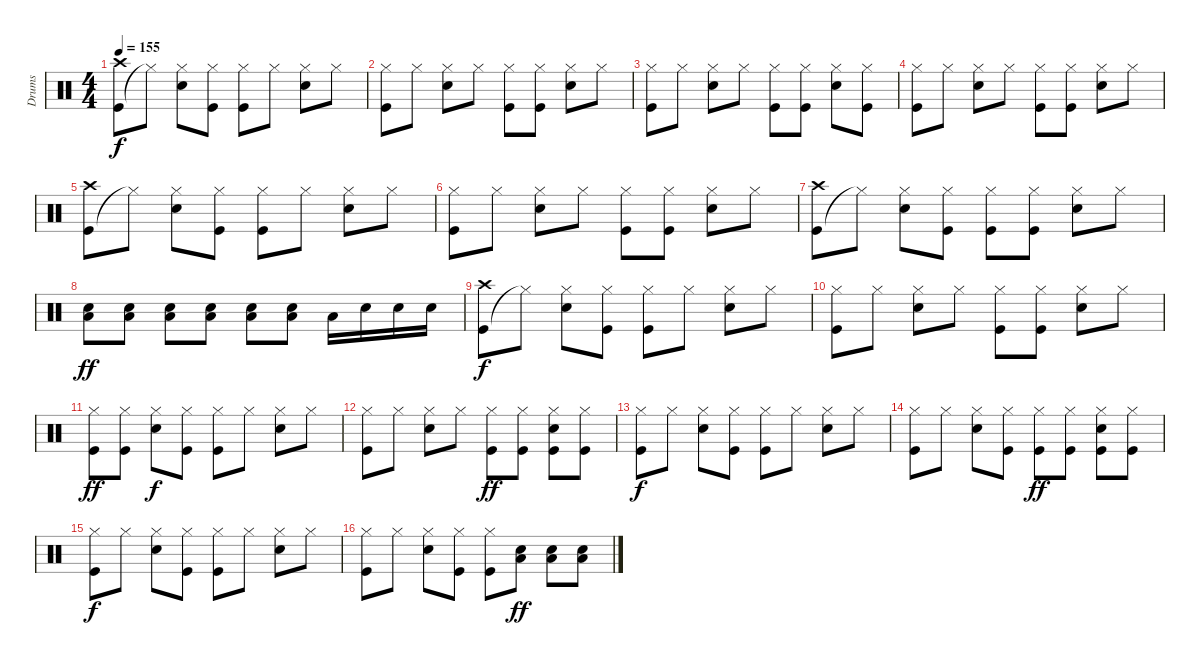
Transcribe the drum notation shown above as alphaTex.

\track ("Drums" "Drums") {instrument percussion}
\staff {score}
\articulation defaults
\ts (4 4)
\tempo 155
\clef neutral
\ks c
("Kick (hit)" "Crash high (hit)").8{dy f} "Hi-Hat (closed)"{t}.8 ("Snare (hit) 2" "Hi-Hat (closed)").8 ("Kick (hit)" "Hi-Hat (closed)").8 ("Kick (hit)" "Hi-Hat (closed)").8 "Hi-Hat (closed)".8 ("Snare (hit) 2" "Hi-Hat (closed)").8 "Hi-Hat (closed)".8 |
("Kick (hit)" "Hi-Hat (closed)").8 "Hi-Hat (closed)".8 ("Snare (hit) 2" "Hi-Hat (closed)").8 "Hi-Hat (closed)".8 ("Kick (hit)" "Hi-Hat (closed)").8 ("Kick (hit)" "Hi-Hat (closed)").8 ("Snare (hit) 2" "Hi-Hat (closed)").8 "Hi-Hat (closed)".8 |
("Kick (hit)" "Hi-Hat (closed)").8 "Hi-Hat (closed)".8 ("Snare (hit) 2" "Hi-Hat (closed)").8 "Hi-Hat (closed)".8 ("Kick (hit)" "Hi-Hat (closed)").8 ("Kick (hit)" "Hi-Hat (closed)").8 ("Snare (hit) 2" "Hi-Hat (closed)").8 ("Kick (hit)" "Hi-Hat (closed)").8 |
("Kick (hit)" "Hi-Hat (closed)").8 "Hi-Hat (closed)".8 ("Snare (hit) 2" "Hi-Hat (closed)").8 "Hi-Hat (closed)".8 ("Kick (hit)" "Hi-Hat (closed)").8 ("Kick (hit)" "Hi-Hat (closed)").8 ("Snare (hit) 2" "Hi-Hat (closed)").8 "Hi-Hat (closed)".8 |
("Kick (hit)" "Crash high (hit)").8 "Hi-Hat (closed)"{t}.8 ("Snare (hit) 2" "Hi-Hat (closed)").8 ("Kick (hit)" "Hi-Hat (closed)").8 ("Kick (hit)" "Hi-Hat (closed)").8 "Hi-Hat (closed)".8 ("Snare (hit) 2" "Hi-Hat (closed)").8 "Hi-Hat (closed)".8 |
("Kick (hit)" "Hi-Hat (closed)").8 "Hi-Hat (closed)".8 ("Snare (hit) 2" "Hi-Hat (closed)").8 "Hi-Hat (closed)".8 ("Kick (hit)" "Hi-Hat (closed)").8 ("Kick (hit)" "Hi-Hat (closed)").8 ("Snare (hit) 2" "Hi-Hat (closed)").8 "Hi-Hat (closed)".8 |
("Kick (hit)" "Crash high (hit)").8 "Hi-Hat (closed)"{t}.8 ("Snare (hit) 2" "Hi-Hat (closed)").8 ("Kick (hit)" "Hi-Hat (closed)").8 ("Kick (hit)" "Hi-Hat (closed)").8 ("Kick (hit)" "Hi-Hat (closed)").8 ("Snare (hit) 2" "Hi-Hat (closed)").8 "Hi-Hat (closed)".8 |
("Snare (hit) 2" "Low Floor Tom (hit)").8{dy ff} ("Snare (hit) 2" "Low Floor Tom (hit)").8 ("Snare (hit) 2" "Low Floor Tom (hit)").8 ("Snare (hit) 2" "Low Floor Tom (hit)").8 ("Snare (hit) 2" "Low Floor Tom (hit)").8 ("Snare (hit) 2" "Low Floor Tom (hit)").8 "Low Floor Tom (hit)".16 "Snare (hit) 2".16 "Snare (hit) 2".16 "Snare (hit) 2".16 |
("Kick (hit)" "Crash high (hit)").8{dy f} "Hi-Hat (closed)"{t}.8 ("Snare (hit) 2" "Hi-Hat (closed)").8 ("Kick (hit)" "Hi-Hat (closed)").8 ("Kick (hit)" "Hi-Hat (closed)").8 "Hi-Hat (closed)".8 ("Snare (hit) 2" "Hi-Hat (closed)").8 "Hi-Hat (closed)".8 |
("Kick (hit)" "Hi-Hat (closed)").8 "Hi-Hat (closed)".8 ("Snare (hit) 2" "Hi-Hat (closed)").8 "Hi-Hat (closed)".8 ("Kick (hit)" "Hi-Hat (closed)").8 ("Kick (hit)" "Hi-Hat (closed)").8 ("Snare (hit) 2" "Hi-Hat (closed)").8 "Hi-Hat (closed)".8 |
("Kick (hit)" "Hi-Hat (closed)").8{dy ff} ("Kick (hit)" "Hi-Hat (closed)").8 ("Snare (hit) 2" "Hi-Hat (closed)").8{dy f} ("Kick (hit)" "Hi-Hat (closed)").8 ("Kick (hit)" "Hi-Hat (closed)").8 "Hi-Hat (closed)".8 ("Snare (hit) 2" "Hi-Hat (closed)").8 "Hi-Hat (closed)".8 |
("Kick (hit)" "Hi-Hat (closed)").8 "Hi-Hat (closed)".8 ("Snare (hit) 2" "Hi-Hat (closed)").8 "Hi-Hat (closed)".8 ("Kick (hit)" "Hi-Hat (closed)").8{dy ff} ("Kick (hit)" "Hi-Hat (closed)").8 ("Kick (hit)" "Snare (hit) 2" "Hi-Hat (closed)").8 ("Kick (hit)" "Hi-Hat (closed)").8 |
("Kick (hit)" "Hi-Hat (closed)").8{dy f} "Hi-Hat (closed)".8 ("Snare (hit) 2" "Hi-Hat (closed)").8 ("Kick (hit)" "Hi-Hat (closed)").8 ("Kick (hit)" "Hi-Hat (closed)").8 "Hi-Hat (closed)".8 ("Snare (hit) 2" "Hi-Hat (closed)").8 "Hi-Hat (closed)".8 |
("Kick (hit)" "Hi-Hat (closed)").8 "Hi-Hat (closed)".8 ("Snare (hit) 2" "Hi-Hat (closed)").8 ("Kick (hit)" "Hi-Hat (closed)").8 ("Kick (hit)" "Hi-Hat (closed)").8{dy ff} ("Kick (hit)" "Hi-Hat (closed)").8 ("Kick (hit)" "Snare (hit) 2" "Hi-Hat (closed)").8 ("Kick (hit)" "Hi-Hat (closed)").8 |
("Kick (hit)" "Hi-Hat (closed)").8{dy f} "Hi-Hat (closed)".8 ("Snare (hit) 2" "Hi-Hat (closed)").8 ("Kick (hit)" "Hi-Hat (closed)").8 ("Kick (hit)" "Hi-Hat (closed)").8 "Hi-Hat (closed)".8 ("Snare (hit) 2" "Hi-Hat (closed)").8 "Hi-Hat (closed)".8 |
("Kick (hit)" "Hi-Hat (closed)").8 "Hi-Hat (closed)".8 ("Snare (hit) 2" "Hi-Hat (closed)").8 ("Kick (hit)" "Hi-Hat (closed)").8 ("Kick (hit)" "Hi-Hat (closed)").8 ("Snare (hit) 2" "Low Floor Tom (hit)").8{dy ff} ("Snare (hit) 2" "Low Floor Tom (hit)").8 ("Snare (hit) 2" "Low Floor Tom (hit)").8
